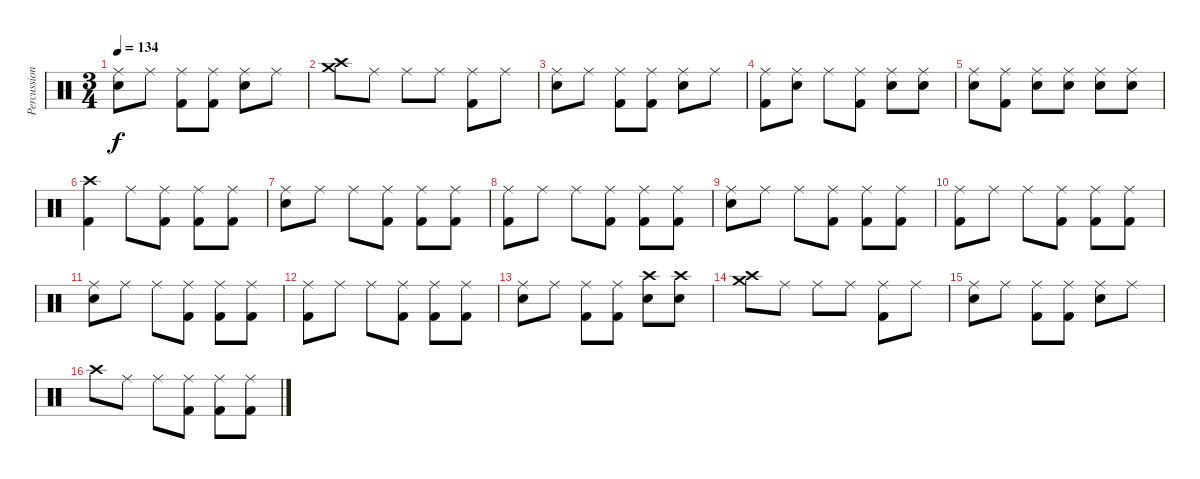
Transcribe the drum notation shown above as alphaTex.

\track ("Percussion" "Percussion") {instrument percussion}
\staff {score}
\articulation defaults
\ts (3 4)
\tempo 134
\clef neutral
\ks c
("Ride (middle)" "Snare (hit) 2").8{dy f} "Ride (middle)".8 ("Ride (middle)" "Kick (hit) 2").8 ("Ride (middle)" "Kick (hit) 2").8 ("Ride (middle)" "Snare (hit) 2").8 "Ride (middle)".8 |
("Crash high (hit)" "Crash medium (hit)").8 "Ride (middle)".8 "Ride (middle)".8 "Ride (middle)".8 ("Ride (middle)" "Kick (hit) 2").8 "Ride (middle)".8 |
("Ride (middle)" "Snare (hit) 2").8 "Ride (middle)".8 ("Ride (middle)" "Kick (hit) 2").8 ("Ride (middle)" "Kick (hit) 2").8 ("Ride (middle)" "Snare (hit) 2").8 "Ride (middle)".8 |
("Ride (middle)" "Kick (hit) 2").8 ("Ride (middle)" "Snare (hit) 2").8 "Ride (middle)".8 ("Ride (middle)" "Kick (hit) 2").8 ("Ride (middle)" "Snare (hit) 2").8 ("Ride (middle)" "Snare (hit) 2").8 |
("Ride (middle)" "Snare (hit) 2").8 ("Ride (middle)" "Kick (hit) 2").8 ("Ride (middle)" "Snare (hit) 2").8 ("Ride (middle)" "Snare (hit) 2").8 ("Ride (middle)" "Snare (hit) 2").8 ("Ride (middle)" "Snare (hit) 2").8 |
("Crash high (hit)" "Kick (hit) 2").4 "Ride (middle)".8 ("Ride (middle)" "Kick (hit) 2").8 ("Ride (middle)" "Kick (hit) 2").8 ("Ride (middle)" "Kick (hit) 2").8 |
("Ride (middle)" "Snare (hit) 2").8 "Ride (middle)".8 "Ride (middle)".8 ("Ride (middle)" "Kick (hit) 2").8 ("Ride (middle)" "Kick (hit) 2").8 ("Ride (middle)" "Kick (hit) 2").8 |
("Ride (middle)" "Kick (hit) 2").8 "Ride (middle)".8 "Ride (middle)".8 ("Ride (middle)" "Kick (hit) 2").8 ("Ride (middle)" "Kick (hit) 2").8 ("Ride (middle)" "Kick (hit) 2").8 |
("Ride (middle)" "Snare (hit) 2").8 "Ride (middle)".8 "Ride (middle)".8 ("Ride (middle)" "Kick (hit) 2").8 ("Ride (middle)" "Kick (hit) 2").8 ("Ride (middle)" "Kick (hit) 2").8 |
("Ride (middle)" "Kick (hit) 2").8 "Ride (middle)".8 "Ride (middle)".8 ("Ride (middle)" "Kick (hit) 2").8 ("Ride (middle)" "Kick (hit) 2").8 ("Ride (middle)" "Kick (hit) 2").8 |
("Ride (middle)" "Snare (hit) 2").8 "Ride (middle)".8 "Ride (middle)".8 ("Ride (middle)" "Kick (hit) 2").8 ("Ride (middle)" "Kick (hit) 2").8 ("Ride (middle)" "Kick (hit) 2").8 |
("Ride (middle)" "Kick (hit) 2").8 "Ride (middle)".8 "Ride (middle)".8 ("Ride (middle)" "Kick (hit) 2").8 ("Ride (middle)" "Kick (hit) 2").8 ("Ride (middle)" "Kick (hit) 2").8 |
("Ride (middle)" "Snare (hit) 2").8 "Ride (middle)".8 ("Ride (middle)" "Kick (hit) 2").8 ("Ride (middle)" "Kick (hit) 2").8 ("Crash high (hit)" "Snare (hit) 2").8 ("Crash high (hit)" "Snare (hit) 2").8 |
("Crash high (hit)" "Crash medium (hit)").8 "Ride (middle)".8 "Ride (middle)".8 "Ride (middle)".8 ("Ride (middle)" "Kick (hit) 2").8 "Ride (middle)".8 |
("Ride (middle)" "Snare (hit) 2").8 "Ride (middle)".8 ("Ride (middle)" "Kick (hit) 2").8 ("Ride (middle)" "Kick (hit) 2").8 ("Ride (middle)" "Snare (hit) 2").8 "Ride (middle)".8 |
"Crash high (hit)".8 "Ride (middle)".8 "Ride (middle)".8 ("Ride (middle)" "Kick (hit) 2").8 ("Ride (middle)" "Kick (hit) 2").8 ("Ride (middle)" "Kick (hit) 2").8
